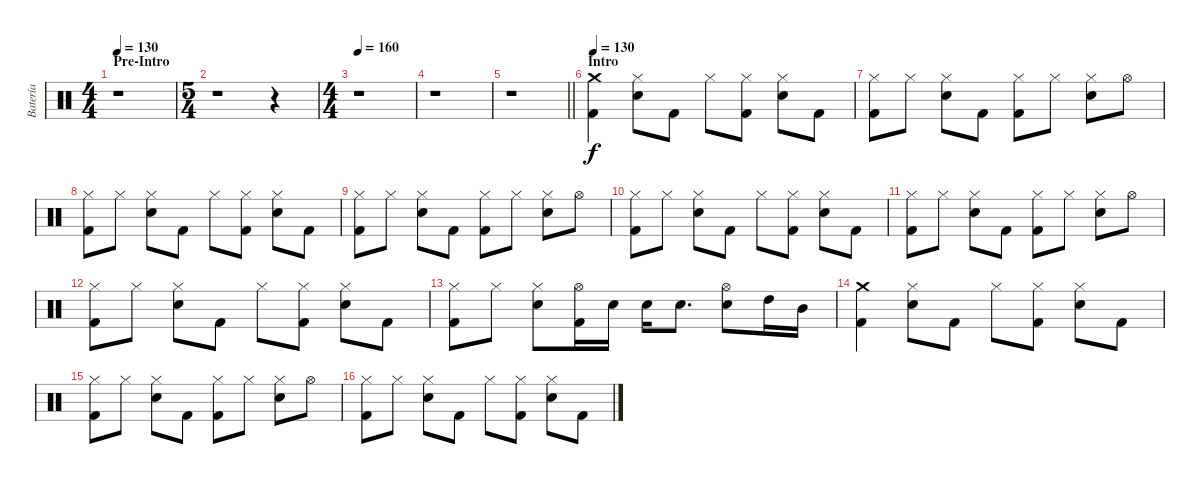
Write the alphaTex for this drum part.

\track ("Batería" "Batería") {instrument percussion}
\staff {score}
\articulation defaults
\ts (4 4)
\section ("" "Pre-Intro")
\tempo 130
\tempo 116
\tempo 130
\clef neutral
\ks aminor
r.1{dy f} |
\ts (5 4)
r.1 r.4 |
\ts (4 4)
\tempo 160
r.1 |
r.1 |
\barLineRight lightlight
r.1 |
\section ("" "Intro")
\tempo 130
("Crash medium (hit)" "Kick (hit) 2").4 ("Hi-Hat (closed)" "Electric Snare (hit)").8 "Kick (hit) 2".8 "Hi-Hat (closed)".8 ("Hi-Hat (closed)" "Kick (hit) 2").8 ("Hi-Hat (closed)" "Electric Snare (hit)").8 "Kick (hit) 2".8 |
("Hi-Hat (closed)" "Kick (hit) 2").8 "Hi-Hat (closed)".8 ("Hi-Hat (closed)" "Electric Snare (hit)").8 "Kick (hit) 2".8 ("Hi-Hat (closed)" "Kick (hit) 2").8 "Hi-Hat (closed)".8 ("Hi-Hat (closed)" "Electric Snare (hit)").8 "Hi-Hat (open)".8 |
("Hi-Hat (closed)" "Kick (hit) 2").8 "Hi-Hat (closed)".8 ("Hi-Hat (closed)" "Electric Snare (hit)").8 "Kick (hit) 2".8 "Hi-Hat (closed)".8 ("Hi-Hat (closed)" "Kick (hit) 2").8 ("Hi-Hat (closed)" "Electric Snare (hit)").8 "Kick (hit) 2".8 |
("Hi-Hat (closed)" "Kick (hit) 2").8 "Hi-Hat (closed)".8 ("Hi-Hat (closed)" "Electric Snare (hit)").8 "Kick (hit) 2".8 ("Hi-Hat (closed)" "Kick (hit) 2").8 "Hi-Hat (closed)".8 ("Hi-Hat (closed)" "Electric Snare (hit)").8 "Hi-Hat (open)".8 |
("Hi-Hat (closed)" "Kick (hit) 2").8 "Hi-Hat (closed)".8 ("Hi-Hat (closed)" "Electric Snare (hit)").8 "Kick (hit) 2".8 "Hi-Hat (closed)".8 ("Hi-Hat (closed)" "Kick (hit) 2").8 ("Hi-Hat (closed)" "Electric Snare (hit)").8 "Kick (hit) 2".8 |
("Hi-Hat (closed)" "Kick (hit) 2").8 "Hi-Hat (closed)".8 ("Hi-Hat (closed)" "Electric Snare (hit)").8 "Kick (hit) 2".8 ("Hi-Hat (closed)" "Kick (hit) 2").8 "Hi-Hat (closed)".8 ("Hi-Hat (closed)" "Electric Snare (hit)").8 "Hi-Hat (open)".8 |
("Hi-Hat (closed)" "Kick (hit) 2").8 "Hi-Hat (closed)".8 ("Hi-Hat (closed)" "Electric Snare (hit)").8 "Kick (hit) 2".8 "Hi-Hat (closed)".8 ("Hi-Hat (closed)" "Kick (hit) 2").8 ("Hi-Hat (closed)" "Electric Snare (hit)").8 "Kick (hit) 2".8 |
("Hi-Hat (closed)" "Kick (hit) 2").8 "Hi-Hat (closed)".8 ("Hi-Hat (closed)" "Electric Snare (hit)").8 ("Hi-Hat (open)" "Kick (hit) 2").16 "Electric Snare (hit)".16 "Electric Snare (hit)".16 "Electric Snare (hit)".8{d} ("Hi-Hat (open)" "Electric Snare (hit)").8 "High Tom (hit)".16 "Mid Tom (hit)".16 |
("Crash medium (hit)" "Kick (hit) 2").4 ("Hi-Hat (closed)" "Electric Snare (hit)").8 "Kick (hit) 2".8 "Hi-Hat (closed)".8 ("Hi-Hat (closed)" "Kick (hit) 2").8 ("Hi-Hat (closed)" "Electric Snare (hit)").8 "Kick (hit) 2".8 |
("Hi-Hat (closed)" "Kick (hit) 2").8 "Hi-Hat (closed)".8 ("Hi-Hat (closed)" "Electric Snare (hit)").8 "Kick (hit) 2".8 ("Hi-Hat (closed)" "Kick (hit) 2").8 "Hi-Hat (closed)".8 ("Hi-Hat (closed)" "Electric Snare (hit)").8 "Hi-Hat (open)".8 |
("Hi-Hat (closed)" "Kick (hit) 2").8 "Hi-Hat (closed)".8 ("Hi-Hat (closed)" "Electric Snare (hit)").8 "Kick (hit) 2".8 "Hi-Hat (closed)".8 ("Hi-Hat (closed)" "Kick (hit) 2").8 ("Hi-Hat (closed)" "Electric Snare (hit)").8 "Kick (hit) 2".8
